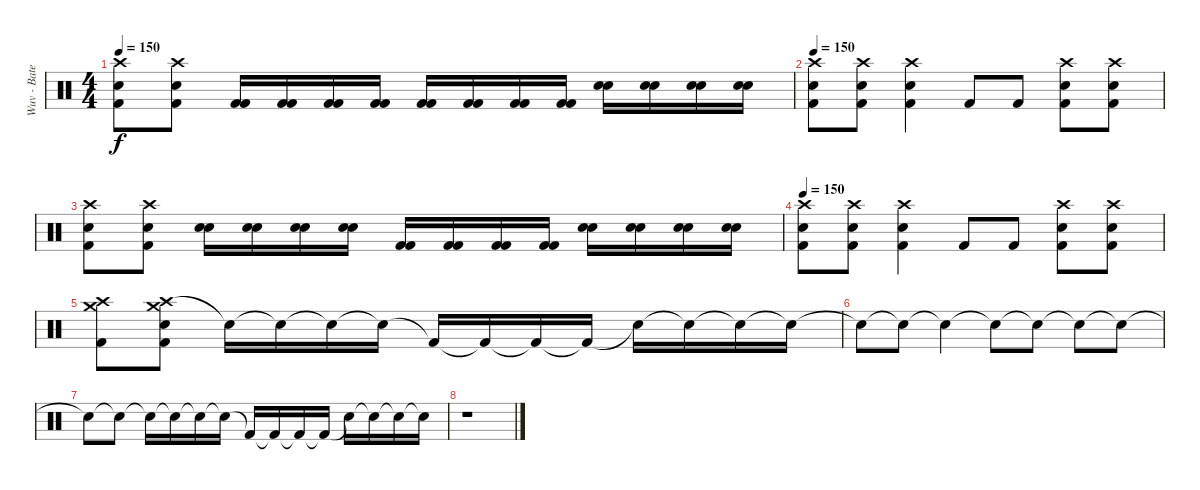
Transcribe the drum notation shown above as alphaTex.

\track ("Wuv - Bateria " "Wuv - Bate") {instrument percussion}
\staff {score}
\articulation defaults
\ts (4 4)
\tempo 150
\clef neutral
\ks c
("Crash high (hit)" "Electric Snare (hit)" "Kick (hit) 2").8{dy f} ("Crash high (hit)" "Electric Snare (hit)" "Kick (hit) 2").8 ("Kick (hit) 2" "Kick (hit) 2").16 ("Kick (hit) 2" "Kick (hit) 2").16 ("Kick (hit) 2" "Kick (hit) 2").16 ("Kick (hit) 2" "Kick (hit) 2").16 ("Kick (hit) 2" "Kick (hit) 2").16 ("Kick (hit) 2" "Kick (hit) 2").16 ("Kick (hit) 2" "Kick (hit) 2").16 ("Kick (hit) 2" "Kick (hit) 2").16 ("Snare (hit) 2" "Snare (hit) 2").16 ("Snare (hit) 2" "Snare (hit) 2").16 ("Snare (hit) 2" "Snare (hit) 2").16 ("Snare (hit) 2" "Snare (hit) 2").16 |
\tempo 150
("Crash high (hit)" "Electric Snare (hit)" "Kick (hit) 2").8 ("Crash high (hit)" "Electric Snare (hit)" "Kick (hit) 2").8 ("Crash high (hit)" "Electric Snare (hit)" "Kick (hit) 2").4 "Kick (hit) 2".8 "Kick (hit) 2".8 ("Crash high (hit)" "Electric Snare (hit)" "Kick (hit) 2").8 ("Crash high (hit)" "Electric Snare (hit)" "Kick (hit) 2").8 |
("Crash high (hit)" "Electric Snare (hit)" "Kick (hit) 2").8 ("Crash high (hit)" "Electric Snare (hit)" "Kick (hit) 2").8 ("Electric Snare (hit)" "Electric Snare (hit)").16 ("Electric Snare (hit)" "Electric Snare (hit)").16 ("Electric Snare (hit)" "Electric Snare (hit)").16 ("Electric Snare (hit)" "Electric Snare (hit)").16 ("Kick (hit) 2" "Kick (hit) 2").16 ("Kick (hit) 2" "Kick (hit) 2").16 ("Kick (hit) 2" "Kick (hit) 2").16 ("Kick (hit) 2" "Kick (hit) 2").16 ("Snare (hit) 2" "Snare (hit) 2").16 ("Snare (hit) 2" "Snare (hit) 2").16 ("Snare (hit) 2" "Snare (hit) 2").16 ("Snare (hit) 2" "Snare (hit) 2").16 |
\tempo 150
("Crash high (hit)" "Electric Snare (hit)" "Kick (hit) 2").8 ("Crash high (hit)" "Electric Snare (hit)" "Kick (hit) 2").8 ("Crash high (hit)" "Electric Snare (hit)" "Kick (hit) 2").4 "Kick (hit) 2".8 "Kick (hit) 2".8 ("Crash high (hit)" "Electric Snare (hit)" "Kick (hit) 2").8 ("Crash high (hit)" "Electric Snare (hit)" "Kick (hit) 2").8 |
("Crash high (hit)" "Crash medium (hit)" "Kick (hit) 2").8 ("Crash high (hit)" "Crash medium (hit)" "Kick (hit) 2" "Snare (hit)").8 "Snare (hit)"{t}.16 "Snare (hit)"{t}.16 "Snare (hit)"{t}.16 "Snare (hit)"{t}.16 "Kick (hit) 2"{t}.16 "Kick (hit) 2"{t}.16 "Kick (hit) 2"{t}.16 "Kick (hit) 2"{t}.16 "Snare (hit) 2"{t}.16 "Snare (hit) 2"{t}.16 "Snare (hit) 2"{t}.16 "Snare (hit) 2"{t}.16 |
"Snare (hit)"{t}.8 "Snare (hit)"{t}.8 "Snare (hit)"{t}.4 "Snare (hit)"{t}.8 "Snare (hit)"{t}.8 "Snare (hit)"{t}.8 "Snare (hit)"{t}.8 |
"Snare (hit)"{t}.8 "Snare (hit)"{t}.8 "Snare (hit)"{t}.16 "Snare (hit)"{t}.16 "Snare (hit)"{t}.16 "Snare (hit)"{t}.16 "Kick (hit) 2"{t}.16 "Kick (hit) 2"{t}.16 "Kick (hit) 2"{t}.16 "Kick (hit) 2"{t}.16 "Snare (hit) 2"{t}.16 "Snare (hit) 2"{t}.16 "Snare (hit) 2"{t}.16 "Snare (hit) 2"{t}.16 |
r.1
